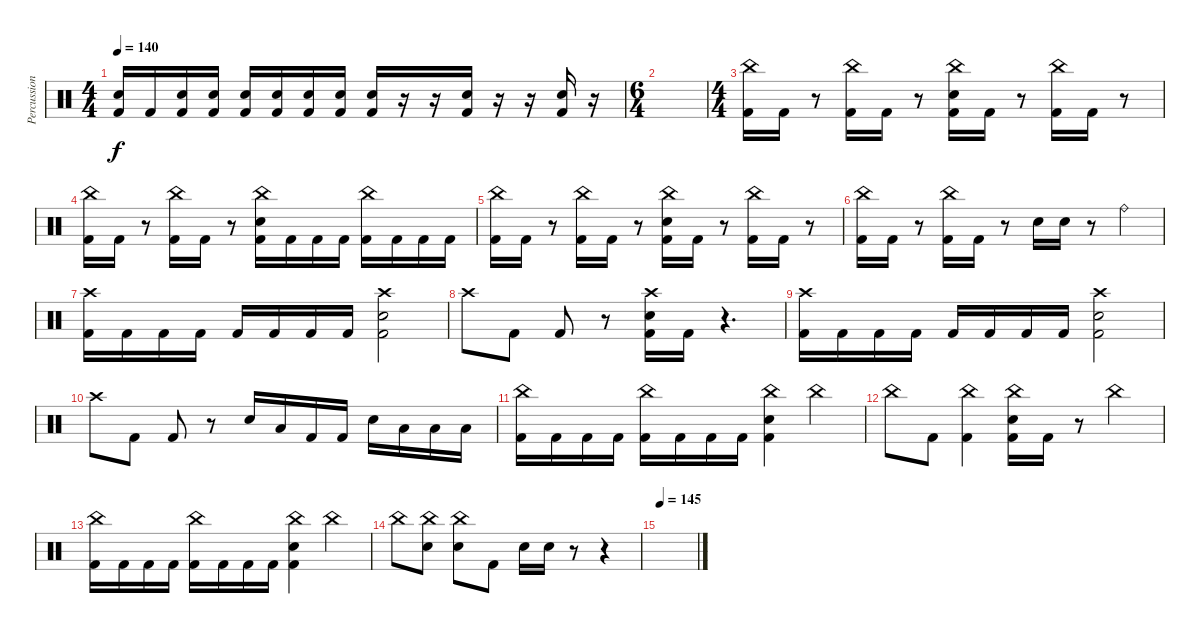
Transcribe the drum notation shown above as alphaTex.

\track ("Percussion" "Percussion") {instrument percussion}
\staff {score}
\articulation defaults
\ts (4 4)
\tempo 140
\clef neutral
\ks c
("Electric Snare (hit)" "Kick (hit) 2").16{dy f} "Kick (hit) 2".16 ("Electric Snare (hit)" "Kick (hit) 2").16 ("Electric Snare (hit)" "Kick (hit) 2").16 ("Electric Snare (hit)" "Kick (hit) 2").16 ("Electric Snare (hit)" "Kick (hit) 2").16 ("Electric Snare (hit)" "Kick (hit) 2").16 ("Electric Snare (hit)" "Kick (hit) 2").16 ("Electric Snare (hit)" "Kick (hit) 2").16 r.16 r.16 ("Electric Snare (hit)" "Kick (hit) 2").16 r.16 r.16 ("Electric Snare (hit)" "Kick (hit) 2").16 r.16 |
\ts (6 4)
|
\ts (4 4)
("China (hit)" "Kick (hit) 2").16 "Kick (hit) 2".16 r.8 ("China (hit)" "Kick (hit) 2").16 "Kick (hit) 2".16 r.8 ("China (hit)" "Electric Snare (hit)" "Kick (hit) 2").16 "Kick (hit) 2".16 r.8 ("China (hit)" "Kick (hit) 2").16 "Kick (hit) 2".16 r.8 |
("China (hit)" "Kick (hit) 2").16 "Kick (hit) 2".16 r.8 ("China (hit)" "Kick (hit) 2").16 "Kick (hit) 2".16 r.8 ("China (hit)" "Electric Snare (hit)" "Kick (hit) 2").16 "Kick (hit) 2".16 "Kick (hit) 2".16 "Kick (hit) 2".16 ("China (hit)" "Kick (hit) 2").16 "Kick (hit) 2".16 "Kick (hit) 2".16 "Kick (hit) 2".16 |
("China (hit)" "Kick (hit) 2").16 "Kick (hit) 2".16 r.8 ("China (hit)" "Kick (hit) 2").16 "Kick (hit) 2".16 r.8 ("China (hit)" "Electric Snare (hit)" "Kick (hit) 2").16 "Kick (hit) 2".16 r.8 ("China (hit)" "Kick (hit) 2").16 "Kick (hit) 2".16 r.8 |
("China (hit)" "Kick (hit) 2").16 "Kick (hit) 2".16 r.8 ("China (hit)" "Kick (hit) 2").16 "Kick (hit) 2".16 r.8 "Electric Snare (hit)".16 "Electric Snare (hit)".16 r.8 "Ride (bell)".4 |
("Crash high (hit)" "Kick (hit) 2").16 "Kick (hit) 2".16 "Kick (hit) 2".16 "Kick (hit) 2".16 "Kick (hit) 2".16 "Kick (hit) 2".16 "Kick (hit) 2".16 "Kick (hit) 2".16 ("Crash high (hit)" "Electric Snare (hit)" "Kick (hit) 2").2 |
"Crash high (hit)".8 "Kick (hit) 2".8 "Kick (hit) 2".8 r.8 ("Crash high (hit)" "Electric Snare (hit)" "Kick (hit) 2").16 "Kick (hit) 2".16 r.4{d} |
("Crash high (hit)" "Kick (hit) 2").16 "Kick (hit) 2".16 "Kick (hit) 2".16 "Kick (hit) 2".16 "Kick (hit) 2".16 "Kick (hit) 2".16 "Kick (hit) 2".16 "Kick (hit) 2".16 ("Crash high (hit)" "Electric Snare (hit)" "Kick (hit) 2").2 |
"Crash high (hit)".8 "Kick (hit) 2".8 "Kick (hit) 2".8 r.8 "Electric Snare (hit)".16 "Low Tom (hit)".16 "Kick (hit) 2".16 "Kick (hit) 2".16 "Electric Snare (hit)".16 "Low Tom (hit)".16 "Low Tom (hit)".16 "Low Tom (hit)".16 |
("China (hit)" "Kick (hit) 2").16 "Kick (hit) 2".16 "Kick (hit) 2".16 "Kick (hit) 2".16 ("China (hit)" "Kick (hit) 2").16 "Kick (hit) 2".16 "Kick (hit) 2".16 "Kick (hit) 2".16 ("China (hit)" "Electric Snare (hit)" "Kick (hit) 2").4 "China (hit)".4 |
"China (hit)".8 "Kick (hit) 2".8 ("China (hit)" "Kick (hit) 2").4 ("China (hit)" "Electric Snare (hit)" "Kick (hit) 2").16 "Kick (hit) 2".16 r.8 "China (hit)".4 |
("China (hit)" "Kick (hit) 2").16 "Kick (hit) 2".16 "Kick (hit) 2".16 "Kick (hit) 2".16 ("China (hit)" "Kick (hit) 2").16 "Kick (hit) 2".16 "Kick (hit) 2".16 "Kick (hit) 2".16 ("China (hit)" "Electric Snare (hit)" "Kick (hit) 2").4 "China (hit)".4 |
"China (hit)".8 ("China (hit)" "Electric Snare (hit)").8 ("China (hit)" "Electric Snare (hit)").8 "Kick (hit) 2".8 "Electric Snare (hit)".16 "Electric Snare (hit)".16 r.8 r.4 |
\tempo 145
